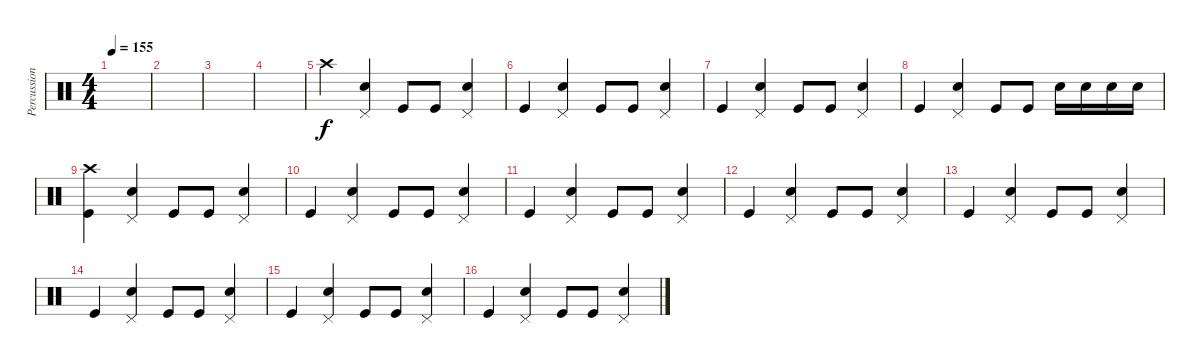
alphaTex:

\track ("Percussion" "Percussion") {instrument percussion}
\staff {score}
\articulation defaults
\ts (4 4)
\tempo 155
\clef neutral
\ks c
|
|
|
|
"Crash high (hit)".4 ("Snare (hit) 2" "Pedal Hi-Hat (hit)").4 "Kick (hit)".8 "Kick (hit)".8 ("Snare (hit) 2" "Pedal Hi-Hat (hit)").4 |
"Kick (hit)".4 ("Snare (hit) 2" "Pedal Hi-Hat (hit)").4 "Kick (hit)".8 "Kick (hit)".8 ("Snare (hit) 2" "Pedal Hi-Hat (hit)").4 |
"Kick (hit)".4 ("Snare (hit) 2" "Pedal Hi-Hat (hit)").4 "Kick (hit)".8 "Kick (hit)".8 ("Snare (hit) 2" "Pedal Hi-Hat (hit)").4 |
"Kick (hit)".4 ("Snare (hit) 2" "Pedal Hi-Hat (hit)").4 "Kick (hit)".8 "Kick (hit)".8 "Snare (hit) 2".16 "Snare (hit) 2".16 "Snare (hit) 2".16 "Snare (hit) 2".16 |
("Kick (hit)" "Crash high (hit)").4 ("Snare (hit) 2" "Pedal Hi-Hat (hit)").4 "Kick (hit)".8 "Kick (hit)".8 ("Snare (hit) 2" "Pedal Hi-Hat (hit)").4 |
"Kick (hit)".4 ("Snare (hit) 2" "Pedal Hi-Hat (hit)").4 "Kick (hit)".8 "Kick (hit)".8 ("Snare (hit) 2" "Pedal Hi-Hat (hit)").4 |
"Kick (hit)".4 ("Snare (hit) 2" "Pedal Hi-Hat (hit)").4 "Kick (hit)".8 "Kick (hit)".8 ("Snare (hit) 2" "Pedal Hi-Hat (hit)").4 |
"Kick (hit)".4 ("Snare (hit) 2" "Pedal Hi-Hat (hit)").4 "Kick (hit)".8 "Kick (hit)".8 ("Snare (hit) 2" "Pedal Hi-Hat (hit)").4 |
"Kick (hit)".4 ("Snare (hit) 2" "Pedal Hi-Hat (hit)").4 "Kick (hit)".8 "Kick (hit)".8 ("Snare (hit) 2" "Pedal Hi-Hat (hit)").4 |
"Kick (hit)".4 ("Snare (hit) 2" "Pedal Hi-Hat (hit)").4 "Kick (hit)".8 "Kick (hit)".8 ("Snare (hit) 2" "Pedal Hi-Hat (hit)").4 |
"Kick (hit)".4 ("Snare (hit) 2" "Pedal Hi-Hat (hit)").4 "Kick (hit)".8 "Kick (hit)".8 ("Snare (hit) 2" "Pedal Hi-Hat (hit)").4 |
"Kick (hit)".4 ("Snare (hit) 2" "Pedal Hi-Hat (hit)").4 "Kick (hit)".8 "Kick (hit)".8 ("Snare (hit) 2" "Pedal Hi-Hat (hit)").4
